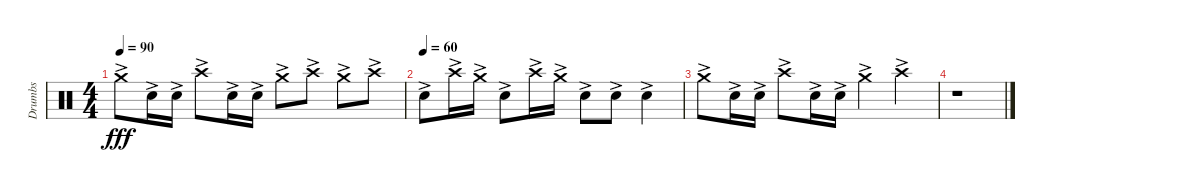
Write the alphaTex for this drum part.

\track ("Drumbs" "Drumbs") {instrument percussion}
\staff {score}
\articulation defaults
\ts (4 4)
\tempo 90
\clef neutral
\ks c "Crash medium (hit)"{ac}.8{dy fff} "Electric Snare (hit)"{ac}.16 "Electric Snare (hit)"{ac}.16 "Crash high (hit)"{ac}.8 "Electric Snare (hit)"{ac}.16 "Electric Snare (hit)"{ac}.16 "Crash medium (hit)"{ac}.8 "Crash high (hit)"{ac}.8 "Crash medium (hit)"{ac}.8 "Crash high (hit)"{ac}.8
|
\tempo (60)
"Electric Snare (hit)"{ac}.8 "Crash high (hit)"{ac}.16 "Crash medium (hit)"{ac}.16 "Electric Snare (hit)"{ac}.8 "Crash high (hit)"{ac}.16 "Crash medium (hit)"{ac}.16 "Electric Snare (hit)"{ac}.8 "Electric Snare (hit)"{ac}.8 "Electric Snare (hit)"{ac}.4 |
"Crash medium (hit)"{ac}.8 "Electric Snare (hit)"{ac}.16 "Electric Snare (hit)"{ac}.16 "Crash high (hit)"{ac}.8 "Electric Snare (hit)"{ac}.16 "Electric Snare (hit)"{ac}.16 "Crash medium (hit)"{ac}.4 "Crash high (hit)"{ac}.4 |
r.1
